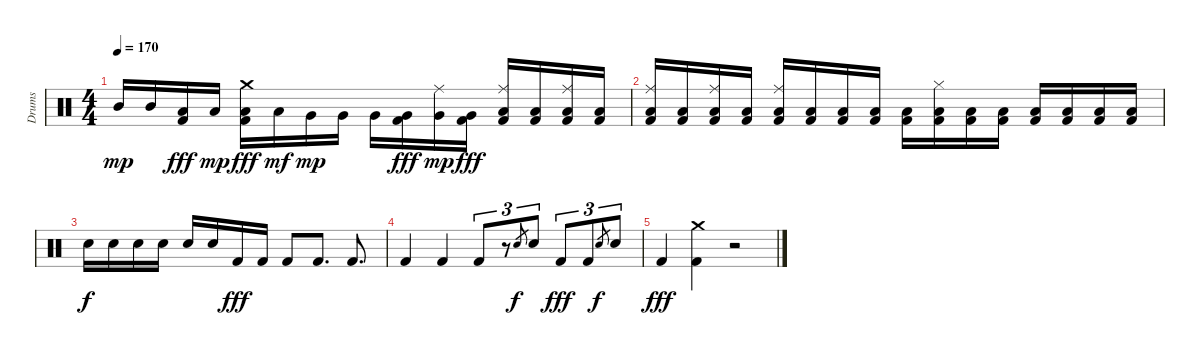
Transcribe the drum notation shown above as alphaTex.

\track ("Drums" "Drums") {instrument percussion}
\staff {score}
\articulation defaults
\ts (4 4)
\tempo 170
\clef neutral
\ks c "Mid Tom (hit)".16{dy mp} "Mid Tom (hit)".16
("Low Tom (hit)" "Kick (hit) 2").16{dy fff} "Low Tom (hit)".16{dy mp} ("Crash medium (hit)" "Low Tom (hit)" "Kick (hit) 2").16{dy fff} "Low Tom (hit)".16{dy mf} "Very Low Tom (hit)".16{dy mp} "Very Low Tom (hit)".16 "Very Low Tom (hit)".16 ("Very Low Tom (hit)" "Kick (hit) 2").16{dy fff} ("Ride (middle)" "Very Low Tom (hit)").16{dy mp} ("Very Low Tom (hit)" "Kick (hit) 2").16{dy fff} ("Ride (middle)" "Low Floor Tom (hit)" "Kick (hit) 2").16 ("Low Floor Tom (hit)" "Kick (hit) 2").16 ("Ride (middle)" "Low Floor Tom (hit)" "Kick (hit) 2").16 ("Low Floor Tom (hit)" "Kick (hit) 2").16 |
("Ride (middle)" "Low Floor Tom (hit)" "Kick (hit) 2").16 ("Low Floor Tom (hit)" "Kick (hit) 2").16 ("Ride (middle)" "Low Floor Tom (hit)" "Kick (hit) 2").16 ("Low Floor Tom (hit)" "Kick (hit) 2").16 ("Ride (middle)" "Low Floor Tom (hit)" "Kick (hit) 2").16 ("Low Floor Tom (hit)" "Kick (hit) 2").16 ("Low Floor Tom (hit)" "Kick (hit) 2").16 ("Low Floor Tom (hit)" "Kick (hit) 2").16 ("Low Floor Tom (hit)" "Kick (hit) 2").16 ("Hi-Hat (closed)" "Low Floor Tom (hit)" "Kick (hit) 2").16 ("Low Floor Tom (hit)" "Kick (hit) 2").16 ("Low Floor Tom (hit)" "Kick (hit) 2").16 ("Low Floor Tom (hit)" "Kick (hit) 2").16 ("Low Floor Tom (hit)" "Kick (hit) 2").16 ("Low Floor Tom (hit)" "Kick (hit) 2").16 ("Low Floor Tom (hit)" "Kick (hit) 2").16 |
"Electric Snare (hit)".16{dy f} "Electric Snare (hit)".16 "Electric Snare (hit)".16 "Electric Snare (hit)".16 "Electric Snare (hit)".16 "Electric Snare (hit)".16 "Kick (hit) 2".16{dy fff} "Kick (hit) 2".16 "Kick (hit) 2".8 "Kick (hit) 2".8{d} "Kick (hit) 2".8{d} |
"Kick (hit) 2".4 "Kick (hit) 2".4 "Kick (hit) 2".8{tu (3 2)} r.8{tu (3 2)} "Electric Snare (hit)".8{gr dy f} "Electric Snare (hit)".8{tu (3 2)} "Kick (hit) 2".8{tu (3 2) dy fff} "Kick (hit) 2".8{tu (3 2)} "Electric Snare (hit)".8{gr dy f} "Electric Snare (hit)".8{tu (3 2)} |
"Kick (hit) 2".4{dy fff} ("Crash medium (hit)" "Kick (hit) 2").4 r.2
